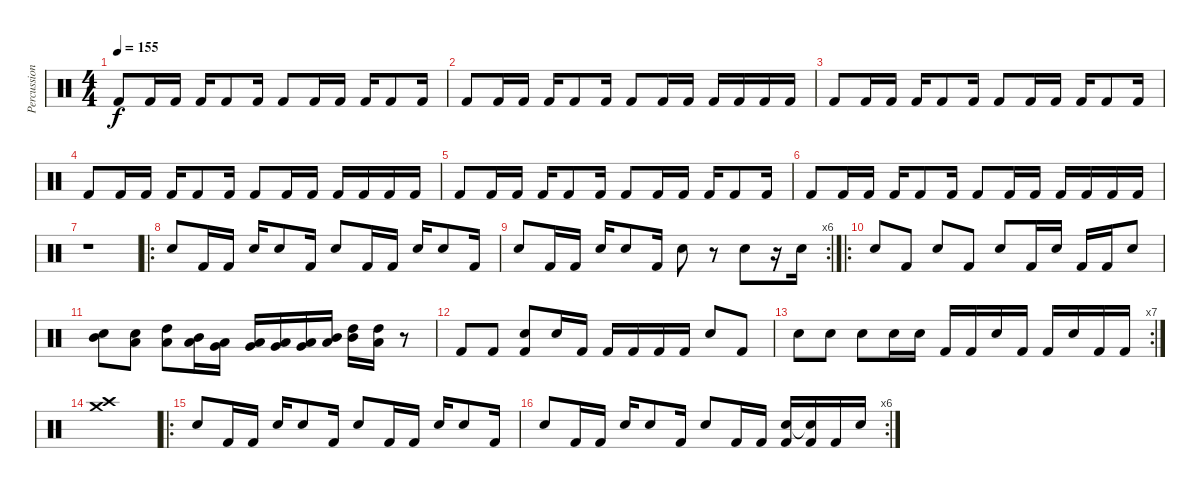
\track ("Percussion" "Percussion") {instrument percussion}
\staff {score}
\articulation defaults
\ts (4 4)
\tempo 155
\clef neutral
\ks c "Kick (hit) 2".8{dy f} "Kick (hit) 2".16 "Kick (hit) 2".16 "Kick (hit) 2".16 "Kick (hit) 2".8 "Kick (hit) 2".16 "Kick (hit) 2".8 "Kick (hit) 2".16 "Kick (hit) 2".16 "Kick (hit) 2".16 "Kick (hit) 2".8 "Kick (hit) 2".16
|
"Kick (hit) 2".8 "Kick (hit) 2".16 "Kick (hit) 2".16 "Kick (hit) 2".16 "Kick (hit) 2".8 "Kick (hit) 2".16 "Kick (hit) 2".8 "Kick (hit) 2".16 "Kick (hit) 2".16 "Kick (hit) 2".16 "Kick (hit) 2".16 "Kick (hit) 2".16 "Kick (hit) 2".16 |
"Kick (hit) 2".8 "Kick (hit) 2".16 "Kick (hit) 2".16 "Kick (hit) 2".16 "Kick (hit) 2".8 "Kick (hit) 2".16 "Kick (hit) 2".8 "Kick (hit) 2".16 "Kick (hit) 2".16 "Kick (hit) 2".16 "Kick (hit) 2".8 "Kick (hit) 2".16 |
"Kick (hit) 2".8 "Kick (hit) 2".16 "Kick (hit) 2".16 "Kick (hit) 2".16 "Kick (hit) 2".8 "Kick (hit) 2".16 "Kick (hit) 2".8 "Kick (hit) 2".16 "Kick (hit) 2".16 "Kick (hit) 2".16 "Kick (hit) 2".16 "Kick (hit) 2".16 "Kick (hit) 2".16 |
"Kick (hit) 2".8 "Kick (hit) 2".16 "Kick (hit) 2".16 "Kick (hit) 2".16 "Kick (hit) 2".8 "Kick (hit) 2".16 "Kick (hit) 2".8 "Kick (hit) 2".16 "Kick (hit) 2".16 "Kick (hit) 2".16 "Kick (hit) 2".8 "Kick (hit) 2".16 |
"Kick (hit) 2".8 "Kick (hit) 2".16 "Kick (hit) 2".16 "Kick (hit) 2".16 "Kick (hit) 2".8 "Kick (hit) 2".16 "Kick (hit) 2".8 "Kick (hit) 2".16 "Kick (hit) 2".16 "Kick (hit) 2".16 "Kick (hit) 2".16 "Kick (hit) 2".16 "Kick (hit) 2".16 |
r.1 |
\ro "Snare (hit) 2".8 "Kick (hit) 2".16 "Kick (hit) 2".16 "Snare (hit) 2".16 "Snare (hit) 2".8 "Kick (hit) 2".16 "Snare (hit) 2".8 "Kick (hit) 2".16 "Kick (hit) 2".16 "Snare (hit) 2".16 "Snare (hit) 2".8 "Kick (hit) 2".16
|
\rc 6 "Snare (hit) 2".8 "Kick (hit) 2".16 "Kick (hit) 2".16 "Snare (hit) 2".16 "Snare (hit) 2".8 "Kick (hit) 2".16 "Snare (hit) 2".8
r.8 "Snare (hit) 2".8 r.16 "Snare (hit) 2".16 |
\ro "Snare (hit) 2".8 "Kick (hit) 2".8 "Snare (hit) 2".8 "Kick (hit) 2".8 "Snare (hit) 2".8 "Kick (hit) 2".16 "Snare (hit) 2".16 "Kick (hit) 2".16 "Kick (hit) 2".16 "Snare (hit) 2".8
|
("Mid Tom (hit)" "Snare (hit) 2").8 ("Low Tom (hit)" "Snare (hit) 2").8 ("High Tom (hit)" "Low Floor Tom (hit)").8 ("Mid Tom (hit)" "Low Tom (hit)").16 ("Low Tom (hit)" "Very Low Tom (hit)").16 ("Very Low Tom (hit)" "Low Floor Tom (hit)").16 ("Low Floor Tom (hit)" "Very Low Tom (hit)").16 ("Very Low Tom (hit)" "Low Tom (hit)").16 ("Low Tom (hit)" "Mid Tom (hit)").16 ("Mid Tom (hit)" "High Tom (hit)").16 ("High Tom (hit)" "Low Floor Tom (hit)").16 r.8 |
"Kick (hit) 2".8 "Kick (hit) 2".8 ("Kick (hit) 2" "Snare (hit) 2").8 "Snare (hit) 2".16 "Kick (hit) 2".16 "Kick (hit) 2".16 "Kick (hit) 2".16 "Kick (hit) 2".16 "Kick (hit) 2".16 "Snare (hit) 2".8 "Kick (hit) 2".8 |
\rc 7 "Snare (hit) 2".8 "Snare (hit) 2".8 "Snare (hit) 2".8 "Snare (hit) 2".16 "Snare (hit) 2".16 "Kick (hit) 2".16 "Kick (hit) 2".16 "Snare (hit) 2".16 "Kick (hit) 2".16 "Kick (hit) 2".16 "Snare (hit) 2".16 "Kick (hit) 2".16 "Kick (hit) 2".16
|
("Crash high (hit)" "Crash medium (hit)").1 |
\ro "Snare (hit) 2".8 "Kick (hit) 2".16 "Kick (hit) 2".16 "Snare (hit) 2".16 "Snare (hit) 2".8 "Kick (hit) 2".16 "Snare (hit) 2".8 "Kick (hit) 2".16 "Kick (hit) 2".16 "Snare (hit) 2".16 "Snare (hit) 2".8 "Kick (hit) 2".16
|
\rc 6 "Snare (hit) 2".8 "Kick (hit) 2".16 "Kick (hit) 2".16 "Snare (hit) 2".16 "Snare (hit) 2".8 "Kick (hit) 2".16 "Snare (hit) 2".8 "Kick (hit) 2".16 "Kick (hit) 2".16
("Kick (hit) 2" "Snare (hit) 2").16 ("Kick (hit) 2" "Snare (hit) 2"{t}).16 "Kick (hit) 2".16 "Snare (hit) 2".16
